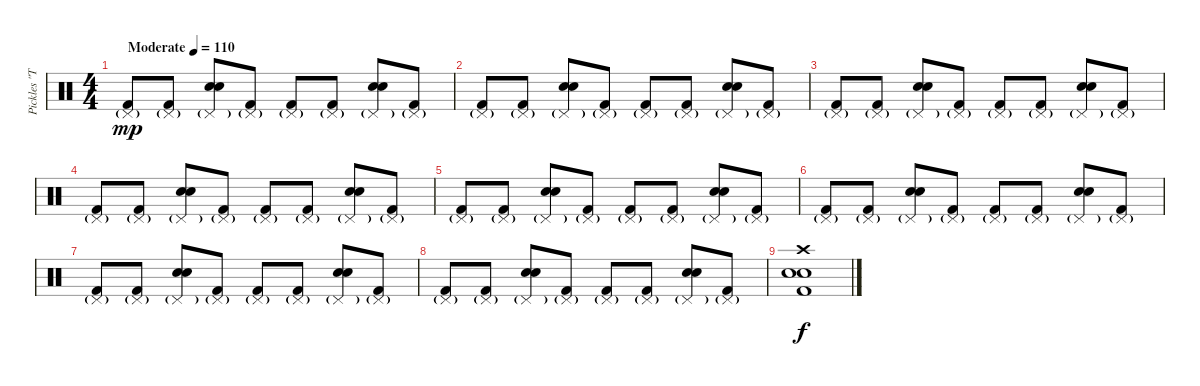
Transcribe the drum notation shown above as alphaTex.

\track ("Pickles \"The Drummer\"" "Pickles \"T") {instrument percussion}
\staff {score}
\articulation defaults
\ts (4 4)
\tempo (110 "Moderate")
\clef neutral
\ks c
("Pedal Hi-Hat (hit)"{g} "Kick (hit) 2").8{dy mp} ("Pedal Hi-Hat (hit)"{g} "Kick (hit) 2").8 ("Pedal Hi-Hat (hit)"{g} "Snare (hit) 2" "Electric Snare (hit)").8 ("Pedal Hi-Hat (hit)"{g} "Kick (hit) 2").8 ("Pedal Hi-Hat (hit)"{g} "Kick (hit) 2").8 ("Pedal Hi-Hat (hit)"{g} "Kick (hit) 2").8 ("Pedal Hi-Hat (hit)"{g} "Snare (hit) 2" "Electric Snare (hit)").8 ("Pedal Hi-Hat (hit)"{g} "Kick (hit) 2").8 |
("Pedal Hi-Hat (hit)"{g} "Kick (hit) 2").8 ("Pedal Hi-Hat (hit)"{g} "Kick (hit) 2").8 ("Pedal Hi-Hat (hit)"{g} "Snare (hit) 2" "Electric Snare (hit)").8 ("Pedal Hi-Hat (hit)"{g} "Kick (hit) 2").8 ("Pedal Hi-Hat (hit)"{g} "Kick (hit) 2").8 ("Pedal Hi-Hat (hit)"{g} "Kick (hit) 2").8 ("Pedal Hi-Hat (hit)"{g} "Snare (hit) 2" "Electric Snare (hit)").8 ("Pedal Hi-Hat (hit)"{g} "Kick (hit) 2").8 |
("Pedal Hi-Hat (hit)"{g} "Kick (hit) 2").8 ("Pedal Hi-Hat (hit)"{g} "Kick (hit) 2").8 ("Pedal Hi-Hat (hit)"{g} "Snare (hit) 2" "Electric Snare (hit)").8 ("Pedal Hi-Hat (hit)"{g} "Kick (hit) 2").8 ("Pedal Hi-Hat (hit)"{g} "Kick (hit) 2").8 ("Pedal Hi-Hat (hit)"{g} "Kick (hit) 2").8 ("Pedal Hi-Hat (hit)"{g} "Snare (hit) 2" "Electric Snare (hit)").8 ("Pedal Hi-Hat (hit)"{g} "Kick (hit) 2").8 |
("Pedal Hi-Hat (hit)"{g} "Kick (hit) 2").8 ("Pedal Hi-Hat (hit)"{g} "Kick (hit) 2").8 ("Pedal Hi-Hat (hit)"{g} "Snare (hit) 2" "Electric Snare (hit)").8 ("Pedal Hi-Hat (hit)"{g} "Kick (hit) 2").8 ("Pedal Hi-Hat (hit)"{g} "Kick (hit) 2").8 ("Pedal Hi-Hat (hit)"{g} "Kick (hit) 2").8 ("Pedal Hi-Hat (hit)"{g} "Snare (hit) 2" "Electric Snare (hit)").8 ("Pedal Hi-Hat (hit)"{g} "Kick (hit) 2").8 |
("Pedal Hi-Hat (hit)"{g} "Kick (hit) 2").8 ("Pedal Hi-Hat (hit)"{g} "Kick (hit) 2").8 ("Pedal Hi-Hat (hit)"{g} "Snare (hit) 2" "Electric Snare (hit)").8 ("Pedal Hi-Hat (hit)"{g} "Kick (hit) 2").8 ("Pedal Hi-Hat (hit)"{g} "Kick (hit) 2").8 ("Pedal Hi-Hat (hit)"{g} "Kick (hit) 2").8 ("Pedal Hi-Hat (hit)"{g} "Snare (hit) 2" "Electric Snare (hit)").8 ("Pedal Hi-Hat (hit)"{g} "Kick (hit) 2").8 |
("Pedal Hi-Hat (hit)"{g} "Kick (hit) 2").8 ("Pedal Hi-Hat (hit)"{g} "Kick (hit) 2").8 ("Pedal Hi-Hat (hit)"{g} "Snare (hit) 2" "Electric Snare (hit)").8 ("Pedal Hi-Hat (hit)"{g} "Kick (hit) 2").8 ("Pedal Hi-Hat (hit)"{g} "Kick (hit) 2").8 ("Pedal Hi-Hat (hit)"{g} "Kick (hit) 2").8 ("Pedal Hi-Hat (hit)"{g} "Snare (hit) 2" "Electric Snare (hit)").8 ("Pedal Hi-Hat (hit)"{g} "Kick (hit) 2").8 |
("Pedal Hi-Hat (hit)"{g} "Kick (hit) 2").8 ("Pedal Hi-Hat (hit)"{g} "Kick (hit) 2").8 ("Pedal Hi-Hat (hit)"{g} "Snare (hit) 2" "Electric Snare (hit)").8 ("Pedal Hi-Hat (hit)"{g} "Kick (hit) 2").8 ("Pedal Hi-Hat (hit)"{g} "Kick (hit) 2").8 ("Pedal Hi-Hat (hit)"{g} "Kick (hit) 2").8 ("Pedal Hi-Hat (hit)"{g} "Snare (hit) 2" "Electric Snare (hit)").8 ("Pedal Hi-Hat (hit)"{g} "Kick (hit) 2").8 |
("Pedal Hi-Hat (hit)"{g} "Kick (hit) 2").8 ("Pedal Hi-Hat (hit)"{g} "Kick (hit) 2").8 ("Pedal Hi-Hat (hit)"{g} "Snare (hit) 2" "Electric Snare (hit)").8 ("Pedal Hi-Hat (hit)"{g} "Kick (hit) 2").8 ("Pedal Hi-Hat (hit)"{g} "Kick (hit) 2").8 ("Pedal Hi-Hat (hit)"{g} "Kick (hit) 2").8 ("Pedal Hi-Hat (hit)"{g} "Snare (hit) 2" "Electric Snare (hit)").8 ("Pedal Hi-Hat (hit)"{g} "Kick (hit) 2").8 |
("Crash high (hit)" "Electric Snare (hit)" "Snare (hit) 2" "Kick (hit) 2").1{dy f}
